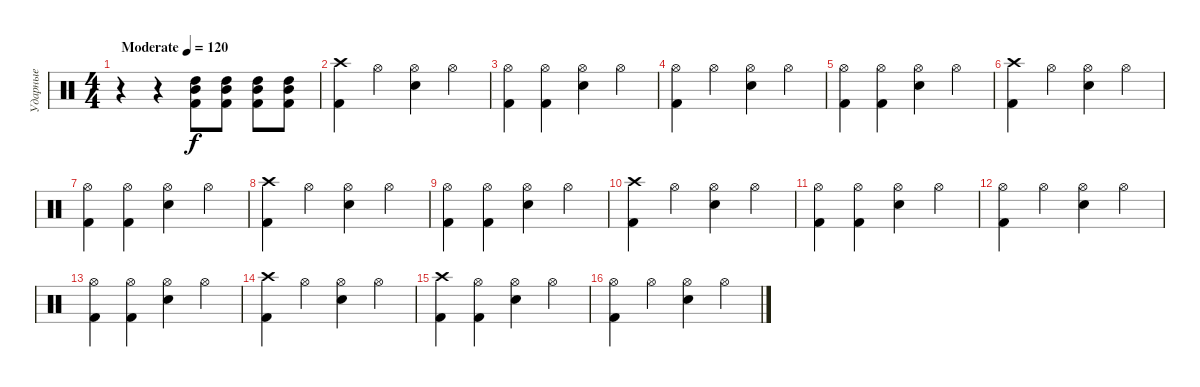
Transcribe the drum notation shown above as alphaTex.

\track ("Ударные" "Ударные") {instrument percussion}
\staff {score}
\articulation defaults
\ts (4 4)
\tempo (120 "Moderate")
\clef neutral
\ks c
r.4{dy f} r.4 ("Mid Tom (hit)" "Kick (hit) 2" "High Tom (hit)").8 ("Mid Tom (hit)" "Kick (hit) 2" "High Tom (hit)").8 ("Mid Tom (hit)" "Kick (hit) 2" "High Tom (hit)").8 ("Mid Tom (hit)" "Kick (hit) 2" "High Tom (hit)").8 |
("Crash high (hit)" "Kick (hit) 2").4 "Hi-Hat (open)".4 ("Hi-Hat (open)" "Snare (hit) 2").4 "Hi-Hat (open)".4 |
("Hi-Hat (open)" "Kick (hit) 2").4 ("Hi-Hat (open)" "Kick (hit) 2").4 ("Hi-Hat (open)" "Snare (hit) 2").4 "Hi-Hat (open)".4 |
("Hi-Hat (open)" "Kick (hit) 2").4 "Hi-Hat (open)".4 ("Hi-Hat (open)" "Snare (hit) 2").4 "Hi-Hat (open)".4 |
("Hi-Hat (open)" "Kick (hit) 2").4 ("Hi-Hat (open)" "Kick (hit) 2").4 ("Hi-Hat (open)" "Snare (hit) 2").4 "Hi-Hat (open)".4 |
("Crash high (hit)" "Kick (hit) 2").4 "Hi-Hat (open)".4 ("Hi-Hat (open)" "Snare (hit) 2").4 "Hi-Hat (open)".4 |
("Hi-Hat (open)" "Kick (hit) 2").4 ("Hi-Hat (open)" "Kick (hit) 2").4 ("Hi-Hat (open)" "Snare (hit) 2").4 "Hi-Hat (open)".4 |
("Crash high (hit)" "Kick (hit) 2").4 "Hi-Hat (open)".4 ("Hi-Hat (open)" "Snare (hit) 2").4 "Hi-Hat (open)".4 |
("Hi-Hat (open)" "Kick (hit) 2").4 ("Hi-Hat (open)" "Kick (hit) 2").4 ("Hi-Hat (open)" "Snare (hit) 2").4 "Hi-Hat (open)".4 |
("Crash high (hit)" "Kick (hit) 2").4 "Hi-Hat (open)".4 ("Hi-Hat (open)" "Snare (hit) 2").4 "Hi-Hat (open)".4 |
("Hi-Hat (open)" "Kick (hit) 2").4 ("Hi-Hat (open)" "Kick (hit) 2").4 ("Hi-Hat (open)" "Snare (hit) 2").4 "Hi-Hat (open)".4 |
("Hi-Hat (open)" "Kick (hit) 2").4 "Hi-Hat (open)".4 ("Hi-Hat (open)" "Snare (hit) 2").4 "Hi-Hat (open)".4 |
("Hi-Hat (open)" "Kick (hit) 2").4 ("Hi-Hat (open)" "Kick (hit) 2").4 ("Hi-Hat (open)" "Snare (hit) 2").4 "Hi-Hat (open)".4 |
("Crash high (hit)" "Kick (hit) 2").4 "Hi-Hat (open)".4 ("Hi-Hat (open)" "Snare (hit) 2").4 "Hi-Hat (open)".4 |
("Crash high (hit)" "Kick (hit) 2").4 ("Hi-Hat (open)" "Kick (hit) 2").4 ("Hi-Hat (open)" "Snare (hit) 2").4 "Hi-Hat (open)".4 |
("Hi-Hat (open)" "Kick (hit) 2").4 "Hi-Hat (open)".4 ("Hi-Hat (open)" "Snare (hit) 2").4 "Hi-Hat (open)".4
